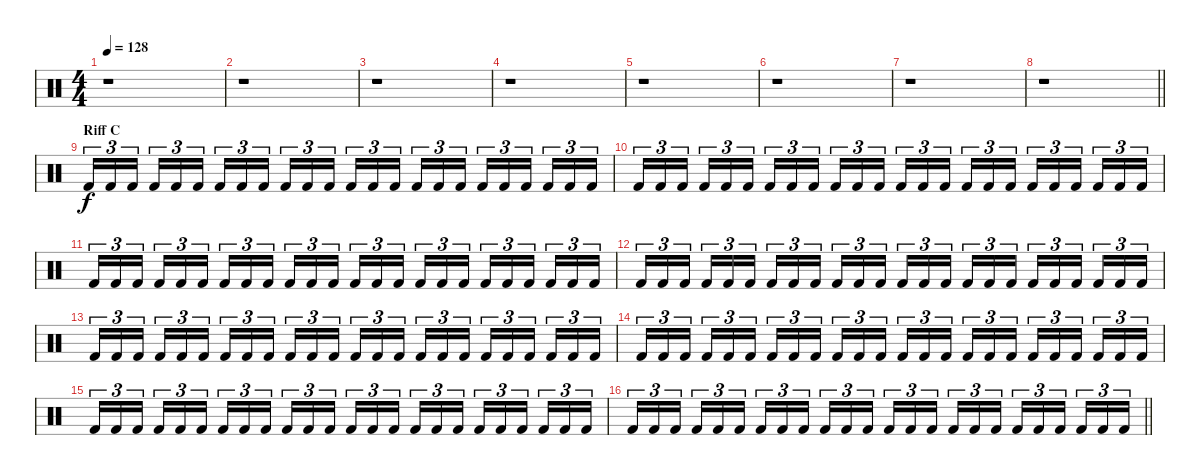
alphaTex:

\track "" {instrument percussion}
\staff {score}
\articulation defaults
\ts (4 4)
\tempo 128
\clef neutral
\ks c
r.1{dy f} |
r.1 |
r.1 |
r.1 |
r.1 |
r.1 |
r.1 |
\barLineRight lightlight
r.1 |
\section ("" "Riff C")
"Kick (hit) 2".16{tu (3 2)} "Kick (hit) 2".16{tu (3 2)} "Kick (hit) 2".16{tu (3 2) beam splitsecondary} "Kick (hit) 2".16{tu (3 2)} "Kick (hit) 2".16{tu (3 2)} "Kick (hit) 2".16{tu (3 2)} "Kick (hit) 2".16{tu (3 2)} "Kick (hit) 2".16{tu (3 2)} "Kick (hit) 2".16{tu (3 2) beam splitsecondary} "Kick (hit) 2".16{tu (3 2)} "Kick (hit) 2".16{tu (3 2)} "Kick (hit) 2".16{tu (3 2)} "Kick (hit) 2".16{tu (3 2)} "Kick (hit) 2".16{tu (3 2)} "Kick (hit) 2".16{tu (3 2) beam splitsecondary} "Kick (hit) 2".16{tu (3 2)} "Kick (hit) 2".16{tu (3 2)} "Kick (hit) 2".16{tu (3 2)} "Kick (hit) 2".16{tu (3 2)} "Kick (hit) 2".16{tu (3 2)} "Kick (hit) 2".16{tu (3 2) beam splitsecondary} "Kick (hit) 2".16{tu (3 2)} "Kick (hit) 2".16{tu (3 2)} "Kick (hit) 2".16{tu (3 2)} |
"Kick (hit) 2".16{tu (3 2)} "Kick (hit) 2".16{tu (3 2)} "Kick (hit) 2".16{tu (3 2) beam splitsecondary} "Kick (hit) 2".16{tu (3 2)} "Kick (hit) 2".16{tu (3 2)} "Kick (hit) 2".16{tu (3 2)} "Kick (hit) 2".16{tu (3 2)} "Kick (hit) 2".16{tu (3 2)} "Kick (hit) 2".16{tu (3 2) beam splitsecondary} "Kick (hit) 2".16{tu (3 2)} "Kick (hit) 2".16{tu (3 2)} "Kick (hit) 2".16{tu (3 2)} "Kick (hit) 2".16{tu (3 2)} "Kick (hit) 2".16{tu (3 2)} "Kick (hit) 2".16{tu (3 2) beam splitsecondary} "Kick (hit) 2".16{tu (3 2)} "Kick (hit) 2".16{tu (3 2)} "Kick (hit) 2".16{tu (3 2)} "Kick (hit) 2".16{tu (3 2)} "Kick (hit) 2".16{tu (3 2)} "Kick (hit) 2".16{tu (3 2) beam splitsecondary} "Kick (hit) 2".16{tu (3 2)} "Kick (hit) 2".16{tu (3 2)} "Kick (hit) 2".16{tu (3 2)} |
"Kick (hit) 2".16{tu (3 2)} "Kick (hit) 2".16{tu (3 2)} "Kick (hit) 2".16{tu (3 2) beam splitsecondary} "Kick (hit) 2".16{tu (3 2)} "Kick (hit) 2".16{tu (3 2)} "Kick (hit) 2".16{tu (3 2)} "Kick (hit) 2".16{tu (3 2)} "Kick (hit) 2".16{tu (3 2)} "Kick (hit) 2".16{tu (3 2) beam splitsecondary} "Kick (hit) 2".16{tu (3 2)} "Kick (hit) 2".16{tu (3 2)} "Kick (hit) 2".16{tu (3 2)} "Kick (hit) 2".16{tu (3 2)} "Kick (hit) 2".16{tu (3 2)} "Kick (hit) 2".16{tu (3 2) beam splitsecondary} "Kick (hit) 2".16{tu (3 2)} "Kick (hit) 2".16{tu (3 2)} "Kick (hit) 2".16{tu (3 2)} "Kick (hit) 2".16{tu (3 2)} "Kick (hit) 2".16{tu (3 2)} "Kick (hit) 2".16{tu (3 2) beam splitsecondary} "Kick (hit) 2".16{tu (3 2)} "Kick (hit) 2".16{tu (3 2)} "Kick (hit) 2".16{tu (3 2)} |
"Kick (hit) 2".16{tu (3 2)} "Kick (hit) 2".16{tu (3 2)} "Kick (hit) 2".16{tu (3 2) beam splitsecondary} "Kick (hit) 2".16{tu (3 2)} "Kick (hit) 2".16{tu (3 2)} "Kick (hit) 2".16{tu (3 2)} "Kick (hit) 2".16{tu (3 2)} "Kick (hit) 2".16{tu (3 2)} "Kick (hit) 2".16{tu (3 2) beam splitsecondary} "Kick (hit) 2".16{tu (3 2)} "Kick (hit) 2".16{tu (3 2)} "Kick (hit) 2".16{tu (3 2)} "Kick (hit) 2".16{tu (3 2)} "Kick (hit) 2".16{tu (3 2)} "Kick (hit) 2".16{tu (3 2) beam splitsecondary} "Kick (hit) 2".16{tu (3 2)} "Kick (hit) 2".16{tu (3 2)} "Kick (hit) 2".16{tu (3 2)} "Kick (hit) 2".16{tu (3 2)} "Kick (hit) 2".16{tu (3 2)} "Kick (hit) 2".16{tu (3 2) beam splitsecondary} "Kick (hit) 2".16{tu (3 2)} "Kick (hit) 2".16{tu (3 2)} "Kick (hit) 2".16{tu (3 2)} |
"Kick (hit) 2".16{tu (3 2)} "Kick (hit) 2".16{tu (3 2)} "Kick (hit) 2".16{tu (3 2) beam splitsecondary} "Kick (hit) 2".16{tu (3 2)} "Kick (hit) 2".16{tu (3 2)} "Kick (hit) 2".16{tu (3 2)} "Kick (hit) 2".16{tu (3 2)} "Kick (hit) 2".16{tu (3 2)} "Kick (hit) 2".16{tu (3 2) beam splitsecondary} "Kick (hit) 2".16{tu (3 2)} "Kick (hit) 2".16{tu (3 2)} "Kick (hit) 2".16{tu (3 2)} "Kick (hit) 2".16{tu (3 2)} "Kick (hit) 2".16{tu (3 2)} "Kick (hit) 2".16{tu (3 2) beam splitsecondary} "Kick (hit) 2".16{tu (3 2)} "Kick (hit) 2".16{tu (3 2)} "Kick (hit) 2".16{tu (3 2)} "Kick (hit) 2".16{tu (3 2)} "Kick (hit) 2".16{tu (3 2)} "Kick (hit) 2".16{tu (3 2) beam splitsecondary} "Kick (hit) 2".16{tu (3 2)} "Kick (hit) 2".16{tu (3 2)} "Kick (hit) 2".16{tu (3 2)} |
"Kick (hit) 2".16{tu (3 2)} "Kick (hit) 2".16{tu (3 2)} "Kick (hit) 2".16{tu (3 2) beam splitsecondary} "Kick (hit) 2".16{tu (3 2)} "Kick (hit) 2".16{tu (3 2)} "Kick (hit) 2".16{tu (3 2)} "Kick (hit) 2".16{tu (3 2)} "Kick (hit) 2".16{tu (3 2)} "Kick (hit) 2".16{tu (3 2) beam splitsecondary} "Kick (hit) 2".16{tu (3 2)} "Kick (hit) 2".16{tu (3 2)} "Kick (hit) 2".16{tu (3 2)} "Kick (hit) 2".16{tu (3 2)} "Kick (hit) 2".16{tu (3 2)} "Kick (hit) 2".16{tu (3 2) beam splitsecondary} "Kick (hit) 2".16{tu (3 2)} "Kick (hit) 2".16{tu (3 2)} "Kick (hit) 2".16{tu (3 2)} "Kick (hit) 2".16{tu (3 2)} "Kick (hit) 2".16{tu (3 2)} "Kick (hit) 2".16{tu (3 2) beam splitsecondary} "Kick (hit) 2".16{tu (3 2)} "Kick (hit) 2".16{tu (3 2)} "Kick (hit) 2".16{tu (3 2)} |
"Kick (hit) 2".16{tu (3 2)} "Kick (hit) 2".16{tu (3 2)} "Kick (hit) 2".16{tu (3 2) beam splitsecondary} "Kick (hit) 2".16{tu (3 2)} "Kick (hit) 2".16{tu (3 2)} "Kick (hit) 2".16{tu (3 2)} "Kick (hit) 2".16{tu (3 2)} "Kick (hit) 2".16{tu (3 2)} "Kick (hit) 2".16{tu (3 2) beam splitsecondary} "Kick (hit) 2".16{tu (3 2)} "Kick (hit) 2".16{tu (3 2)} "Kick (hit) 2".16{tu (3 2)} "Kick (hit) 2".16{tu (3 2)} "Kick (hit) 2".16{tu (3 2)} "Kick (hit) 2".16{tu (3 2) beam splitsecondary} "Kick (hit) 2".16{tu (3 2)} "Kick (hit) 2".16{tu (3 2)} "Kick (hit) 2".16{tu (3 2)} "Kick (hit) 2".16{tu (3 2)} "Kick (hit) 2".16{tu (3 2)} "Kick (hit) 2".16{tu (3 2) beam splitsecondary} "Kick (hit) 2".16{tu (3 2)} "Kick (hit) 2".16{tu (3 2)} "Kick (hit) 2".16{tu (3 2)} |
\barLineRight lightlight "Kick (hit) 2".16{tu (3 2)} "Kick (hit) 2".16{tu (3 2)} "Kick (hit) 2".16{tu (3 2) beam splitsecondary} "Kick (hit) 2".16{tu (3 2)} "Kick (hit) 2".16{tu (3 2)} "Kick (hit) 2".16{tu (3 2)} "Kick (hit) 2".16{tu (3 2)} "Kick (hit) 2".16{tu (3 2)} "Kick (hit) 2".16{tu (3 2) beam splitsecondary} "Kick (hit) 2".16{tu (3 2)} "Kick (hit) 2".16{tu (3 2)} "Kick (hit) 2".16{tu (3 2)} "Kick (hit) 2".16{tu (3 2)} "Kick (hit) 2".16{tu (3 2)} "Kick (hit) 2".16{tu (3 2) beam splitsecondary} "Kick (hit) 2".16{tu (3 2)} "Kick (hit) 2".16{tu (3 2)} "Kick (hit) 2".16{tu (3 2)} "Kick (hit) 2".16{tu (3 2)} "Kick (hit) 2".16{tu (3 2)} "Kick (hit) 2".16{tu (3 2) beam splitsecondary} "Kick (hit) 2".16{tu (3 2)} "Kick (hit) 2".16{tu (3 2)} "Kick (hit) 2".16{tu (3 2)}
